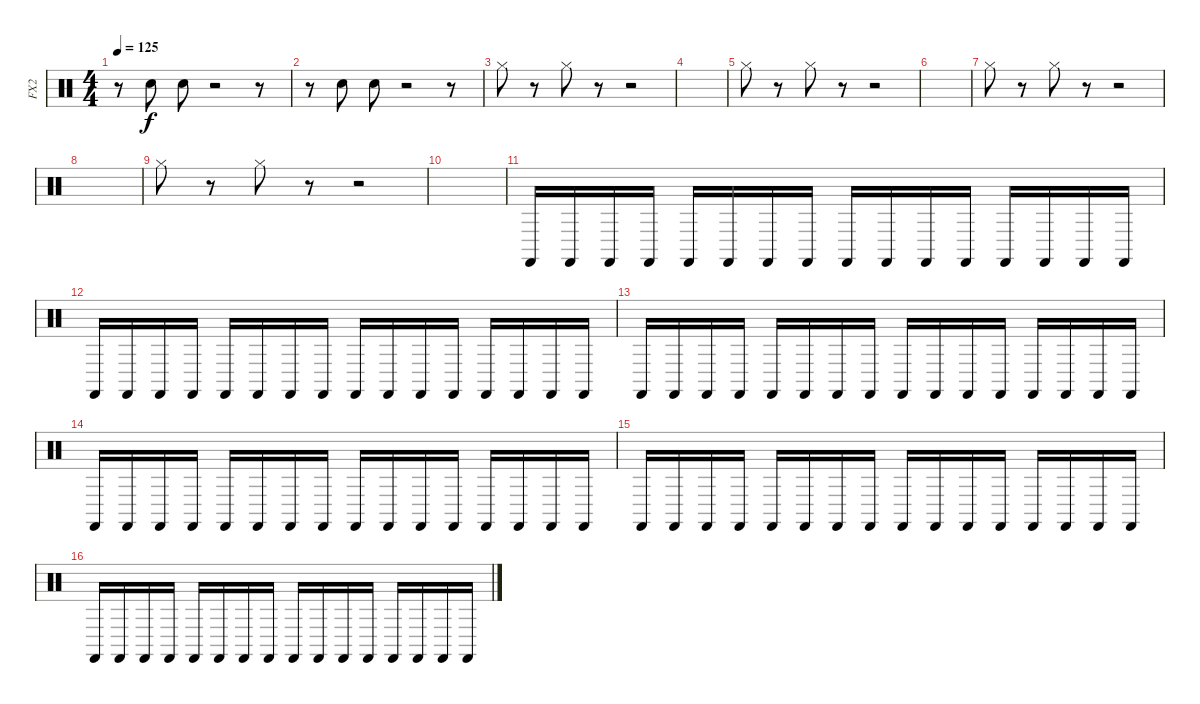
\track ("FX2" "FX2") {instrument percussion}
\staff {score}
\articulation defaults
\ts (4 4)
\tempo 125
\clef neutral
\ks c
r.8{dy f} "Hand Clap (hit)".8 "Hand Clap (hit)".8 r.2 r.8 |
r.8 "Hand Clap (hit)".8 "Hand Clap (hit)".8 r.2 r.8 |
"Hi-Hat (closed)".8 r.8 "Hi-Hat (closed)".8 r.8 r.2 |
|
"Hi-Hat (closed)".8 r.8 "Hi-Hat (closed)".8 r.8 r.2 |
|
"Hi-Hat (closed)".8 r.8 "Hi-Hat (closed)".8 r.8 r.2 |
|
"Hi-Hat (closed)".8 r.8 "Hi-Hat (closed)".8 r.8 r.2 |
|
"Castanets (hit)".16 "Castanets (hit)".16 "Castanets (hit)".16 "Castanets (hit)".16 "Castanets (hit)".16 "Castanets (hit)".16 "Castanets (hit)".16 "Castanets (hit)".16 "Castanets (hit)".16 "Castanets (hit)".16 "Castanets (hit)".16 "Castanets (hit)".16 "Castanets (hit)".16 "Castanets (hit)".16 "Castanets (hit)".16 "Castanets (hit)".16 |
"Castanets (hit)".16 "Castanets (hit)".16 "Castanets (hit)".16 "Castanets (hit)".16 "Castanets (hit)".16 "Castanets (hit)".16 "Castanets (hit)".16 "Castanets (hit)".16 "Castanets (hit)".16 "Castanets (hit)".16 "Castanets (hit)".16 "Castanets (hit)".16 "Castanets (hit)".16 "Castanets (hit)".16 "Castanets (hit)".16 "Castanets (hit)".16 |
"Castanets (hit)".16 "Castanets (hit)".16 "Castanets (hit)".16 "Castanets (hit)".16 "Castanets (hit)".16 "Castanets (hit)".16 "Castanets (hit)".16 "Castanets (hit)".16 "Castanets (hit)".16 "Castanets (hit)".16 "Castanets (hit)".16 "Castanets (hit)".16 "Castanets (hit)".16 "Castanets (hit)".16 "Castanets (hit)".16 "Castanets (hit)".16 |
"Castanets (hit)".16 "Castanets (hit)".16 "Castanets (hit)".16 "Castanets (hit)".16 "Castanets (hit)".16 "Castanets (hit)".16 "Castanets (hit)".16 "Castanets (hit)".16 "Castanets (hit)".16 "Castanets (hit)".16 "Castanets (hit)".16 "Castanets (hit)".16 "Castanets (hit)".16 "Castanets (hit)".16 "Castanets (hit)".16 "Castanets (hit)".16 |
"Castanets (hit)".16 "Castanets (hit)".16 "Castanets (hit)".16 "Castanets (hit)".16 "Castanets (hit)".16 "Castanets (hit)".16 "Castanets (hit)".16 "Castanets (hit)".16 "Castanets (hit)".16 "Castanets (hit)".16 "Castanets (hit)".16 "Castanets (hit)".16 "Castanets (hit)".16 "Castanets (hit)".16 "Castanets (hit)".16 "Castanets (hit)".16 |
"Castanets (hit)".16 "Castanets (hit)".16 "Castanets (hit)".16 "Castanets (hit)".16 "Castanets (hit)".16 "Castanets (hit)".16 "Castanets (hit)".16 "Castanets (hit)".16 "Castanets (hit)".16 "Castanets (hit)".16 "Castanets (hit)".16 "Castanets (hit)".16 "Castanets (hit)".16 "Castanets (hit)".16 "Castanets (hit)".16 "Castanets (hit)".16
